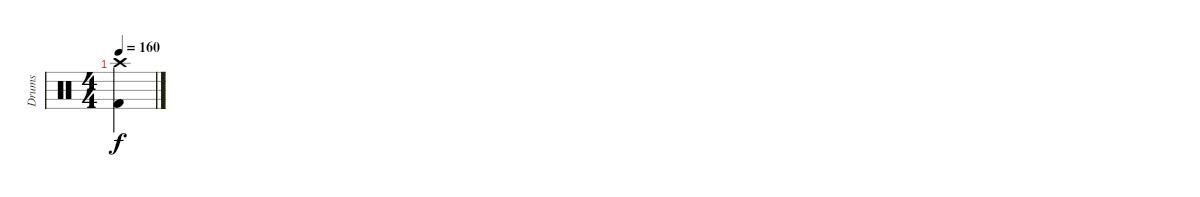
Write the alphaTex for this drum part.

\track ("Drums" "Drums") {instrument percussion}
\staff {score}
\articulation defaults
\ts (4 4)
\tempo 160
\clef neutral
\ks c
("Crash high (hit)" "Kick (hit) 2").4{dy f}
